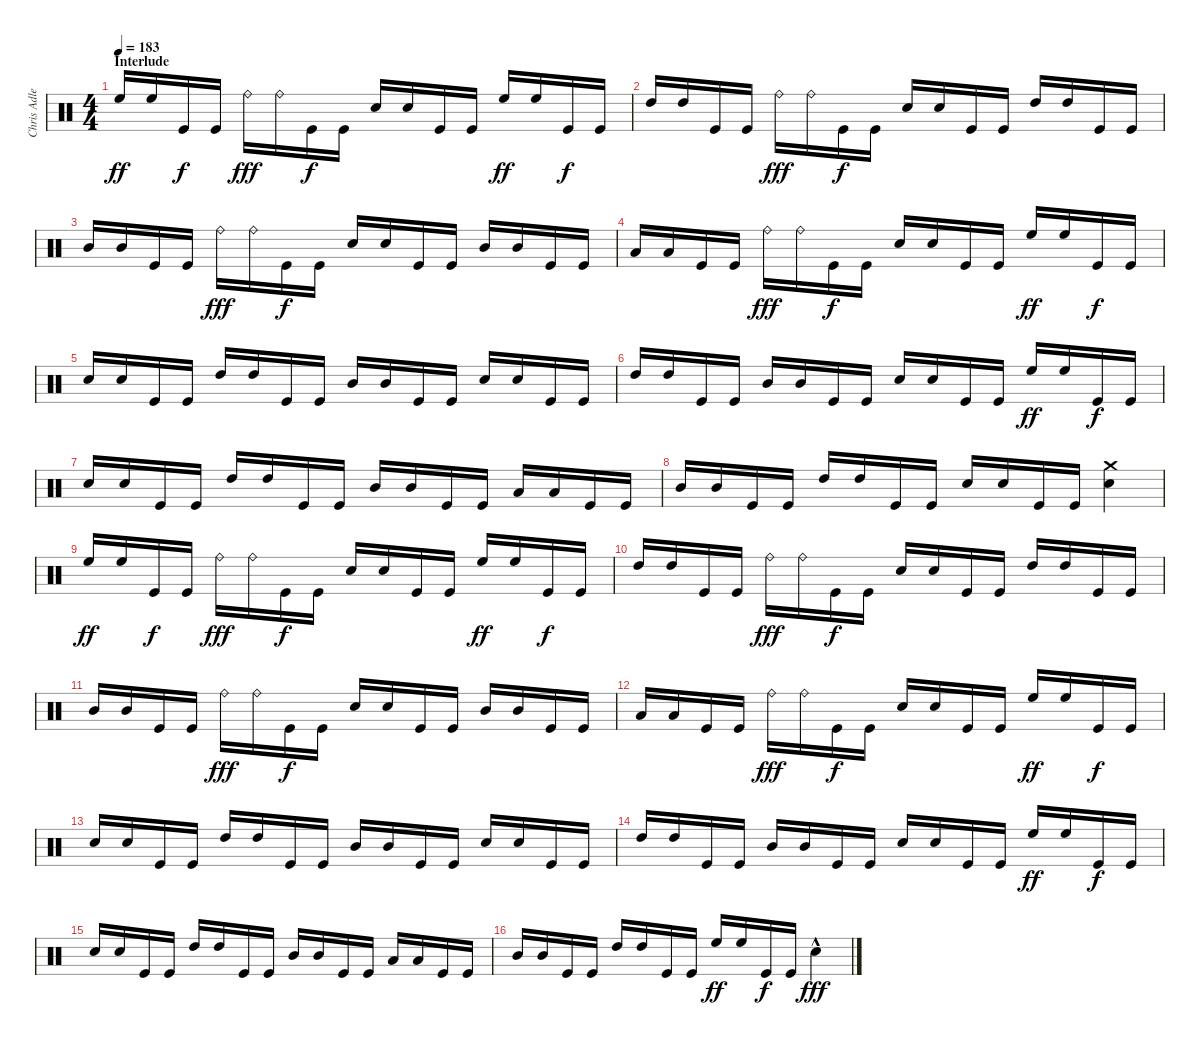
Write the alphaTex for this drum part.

\track ("Chris Adler" "Chris Adle") {instrument percussion}
\staff {score}
\articulation defaults
\ts (4 4)
\section ("" "Interlude")
\tempo 183
\clef neutral
\ks c "High Floor Tom (hit)".16{dy ff} "High Floor Tom (hit)".16 "Kick (hit)".16{dy f} "Kick (hit)".16 "Ride (bell)".16{dy fff} "Ride (bell)".16 "Kick (hit)".16{dy f} "Kick (hit)".16 "Snare (hit) 2".16 "Snare (hit) 2".16 "Kick (hit)".16 "Kick (hit)".16 "High Floor Tom (hit)".16{dy ff} "High Floor Tom (hit)".16 "Kick (hit)".16{dy f} "Kick (hit)".16
|
"High Tom (hit)".16 "High Tom (hit)".16 "Kick (hit)".16 "Kick (hit)".16 "Ride (bell)".16{dy fff} "Ride (bell)".16 "Kick (hit)".16{dy f} "Kick (hit)".16 "Snare (hit) 2".16 "Snare (hit) 2".16 "Kick (hit)".16 "Kick (hit)".16 "High Tom (hit)".16 "High Tom (hit)".16 "Kick (hit)".16 "Kick (hit)".16 |
"Mid Tom (hit)".16 "Mid Tom (hit)".16 "Kick (hit)".16 "Kick (hit)".16 "Ride (bell)".16{dy fff} "Ride (bell)".16 "Kick (hit)".16{dy f} "Kick (hit)".16 "Snare (hit) 2".16 "Snare (hit) 2".16 "Kick (hit)".16 "Kick (hit)".16 "Mid Tom (hit)".16 "Mid Tom (hit)".16 "Kick (hit)".16 "Kick (hit)".16 |
"Low Tom (hit)".16 "Low Tom (hit)".16 "Kick (hit)".16 "Kick (hit)".16 "Ride (bell)".16{dy fff} "Ride (bell)".16 "Kick (hit)".16{dy f} "Kick (hit)".16 "Snare (hit) 2".16 "Snare (hit) 2".16 "Kick (hit)".16 "Kick (hit)".16 "High Floor Tom (hit)".16{dy ff} "High Floor Tom (hit)".16 "Kick (hit)".16{dy f} "Kick (hit)".16 |
"Snare (hit) 2".16 "Snare (hit) 2".16 "Kick (hit)".16 "Kick (hit)".16 "High Tom (hit)".16 "High Tom (hit)".16 "Kick (hit)".16 "Kick (hit)".16 "Mid Tom (hit)".16 "Mid Tom (hit)".16 "Kick (hit)".16 "Kick (hit)".16 "Snare (hit) 2".16 "Snare (hit) 2".16 "Kick (hit)".16 "Kick (hit)".16 |
"High Tom (hit)".16 "High Tom (hit)".16 "Kick (hit)".16 "Kick (hit)".16 "Mid Tom (hit)".16 "Mid Tom (hit)".16 "Kick (hit)".16 "Kick (hit)".16 "Snare (hit) 2".16 "Snare (hit) 2".16 "Kick (hit)".16 "Kick (hit)".16 "High Floor Tom (hit)".16{dy ff} "High Floor Tom (hit)".16 "Kick (hit)".16{dy f} "Kick (hit)".16 |
"Snare (hit) 2".16 "Snare (hit) 2".16 "Kick (hit)".16 "Kick (hit)".16 "High Tom (hit)".16 "High Tom (hit)".16 "Kick (hit)".16 "Kick (hit)".16 "Mid Tom (hit)".16 "Mid Tom (hit)".16 "Kick (hit)".16 "Kick (hit)".16 "Low Tom (hit)".16 "Low Tom (hit)".16 "Kick (hit)".16 "Kick (hit)".16 |
"Mid Tom (hit)".16 "Mid Tom (hit)".16 "Kick (hit)".16 "Kick (hit)".16 "High Tom (hit)".16 "High Tom (hit)".16 "Kick (hit)".16 "Kick (hit)".16 "Snare (hit) 2".16 "Snare (hit) 2".16 "Kick (hit)".16 "Kick (hit)".16 ("Snare (hit) 2" "Crash medium (hit)").4 |
"High Floor Tom (hit)".16{dy ff} "High Floor Tom (hit)".16 "Kick (hit)".16{dy f} "Kick (hit)".16 "Ride (bell)".16{dy fff} "Ride (bell)".16 "Kick (hit)".16{dy f} "Kick (hit)".16 "Snare (hit) 2".16 "Snare (hit) 2".16 "Kick (hit)".16 "Kick (hit)".16 "High Floor Tom (hit)".16{dy ff} "High Floor Tom (hit)".16 "Kick (hit)".16{dy f} "Kick (hit)".16 |
"High Tom (hit)".16 "High Tom (hit)".16 "Kick (hit)".16 "Kick (hit)".16 "Ride (bell)".16{dy fff} "Ride (bell)".16 "Kick (hit)".16{dy f} "Kick (hit)".16 "Snare (hit) 2".16 "Snare (hit) 2".16 "Kick (hit)".16 "Kick (hit)".16 "High Tom (hit)".16 "High Tom (hit)".16 "Kick (hit)".16 "Kick (hit)".16 |
"Mid Tom (hit)".16 "Mid Tom (hit)".16 "Kick (hit)".16 "Kick (hit)".16 "Ride (bell)".16{dy fff} "Ride (bell)".16 "Kick (hit)".16{dy f} "Kick (hit)".16 "Snare (hit) 2".16 "Snare (hit) 2".16 "Kick (hit)".16 "Kick (hit)".16 "Mid Tom (hit)".16 "Mid Tom (hit)".16 "Kick (hit)".16 "Kick (hit)".16 |
"Low Tom (hit)".16 "Low Tom (hit)".16 "Kick (hit)".16 "Kick (hit)".16 "Ride (bell)".16{dy fff} "Ride (bell)".16 "Kick (hit)".16{dy f} "Kick (hit)".16 "Snare (hit) 2".16 "Snare (hit) 2".16 "Kick (hit)".16 "Kick (hit)".16 "High Floor Tom (hit)".16{dy ff} "High Floor Tom (hit)".16 "Kick (hit)".16{dy f} "Kick (hit)".16 |
"Snare (hit) 2".16 "Snare (hit) 2".16 "Kick (hit)".16 "Kick (hit)".16 "High Tom (hit)".16 "High Tom (hit)".16 "Kick (hit)".16 "Kick (hit)".16 "Mid Tom (hit)".16 "Mid Tom (hit)".16 "Kick (hit)".16 "Kick (hit)".16 "Snare (hit) 2".16 "Snare (hit) 2".16 "Kick (hit)".16 "Kick (hit)".16 |
"High Tom (hit)".16 "High Tom (hit)".16 "Kick (hit)".16 "Kick (hit)".16 "Mid Tom (hit)".16 "Mid Tom (hit)".16 "Kick (hit)".16 "Kick (hit)".16 "Snare (hit) 2".16 "Snare (hit) 2".16 "Kick (hit)".16 "Kick (hit)".16 "High Floor Tom (hit)".16{dy ff} "High Floor Tom (hit)".16 "Kick (hit)".16{dy f} "Kick (hit)".16 |
"Snare (hit) 2".16 "Snare (hit) 2".16 "Kick (hit)".16 "Kick (hit)".16 "High Tom (hit)".16 "High Tom (hit)".16 "Kick (hit)".16 "Kick (hit)".16 "Mid Tom (hit)".16 "Mid Tom (hit)".16 "Kick (hit)".16 "Kick (hit)".16 "Low Tom (hit)".16 "Low Tom (hit)".16 "Kick (hit)".16 "Kick (hit)".16 |
"Mid Tom (hit)".16 "Mid Tom (hit)".16 "Kick (hit)".16 "Kick (hit)".16 "High Tom (hit)".16 "High Tom (hit)".16 "Kick (hit)".16 "Kick (hit)".16 "High Floor Tom (hit)".16{dy ff} "High Floor Tom (hit)".16 "Kick (hit)".16{dy f} "Kick (hit)".16 "Snare (hit) 2"{hac}.4{dy fff}
